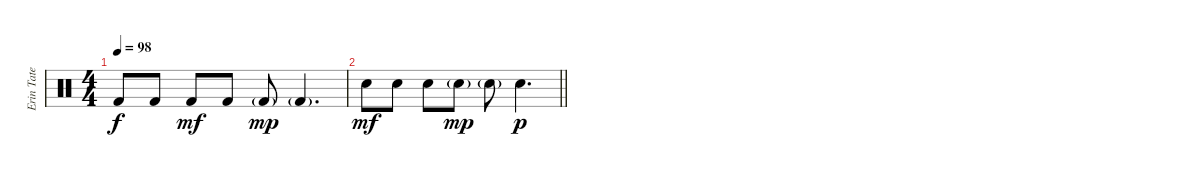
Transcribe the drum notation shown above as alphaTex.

\track ("Erin Tate" "Erin Tate") {instrument percussion}
\staff {score}
\articulation defaults
\ts (4 4)
\tempo 98
\clef neutral
\ks c "Kick (hit) 2".8{dy f} "Kick (hit) 2".8 "Kick (hit) 2".8{dy mf} "Kick (hit) 2".8 "Kick (hit) 2"{g}.8{dy mp} "Kick (hit) 2"{g}.4{d}
|
\barLineRight lightlight "Electric Snare (hit)".8{dy mf} "Electric Snare (hit)".8 "Electric Snare (hit)".8 "Electric Snare (hit)"{g}.8{dy mp} "Electric Snare (hit)"{g}.8 "Electric Snare (hit)".4{d dy p}
